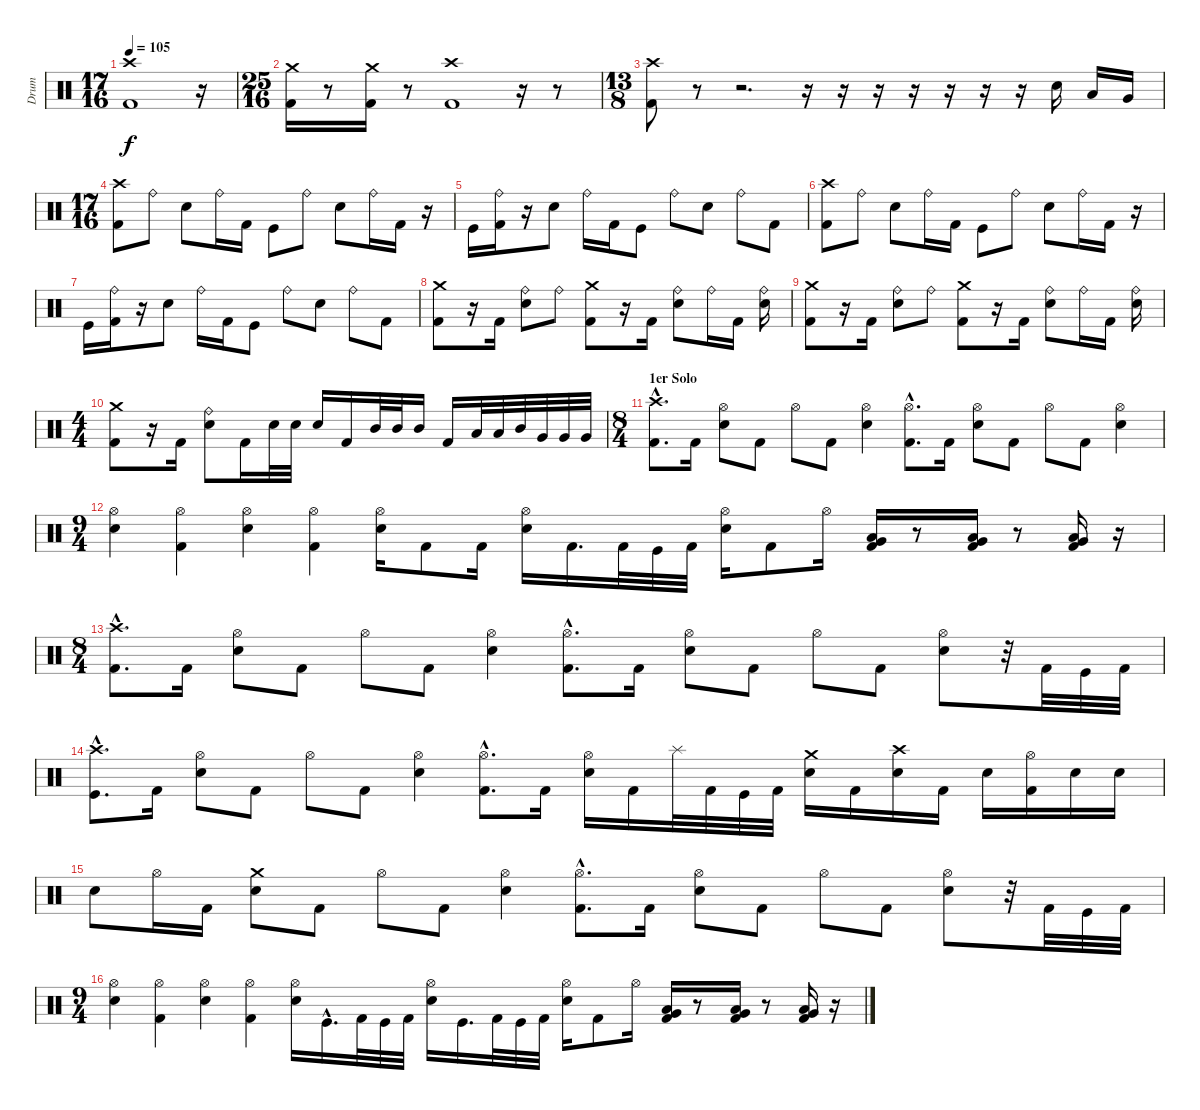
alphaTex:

\track ("Drum" "Drum") {instrument percussion}
\staff {score}
\articulation defaults
\ts (17 16)
\tempo 105
\clef neutral
\ks c
("Crash high (hit)" "Kick (hit) 2").1{dy f} r.16 |
\ts (25 16)
("Crash medium (hit)"{pm} "Kick (hit) 2").16 r.8 ("Crash medium (hit)" "Kick (hit) 2").16 r.8 ("Crash high (hit)" "Kick (hit) 2").1 r.16 r.8 |
\ts (13 8)
("Crash high (hit)" "Kick (hit) 2").8 r.8 r.2{d} r.16 r.16 r.16 r.16 r.16 r.16 r.16 "Snare (hit) 2".16 "Low Tom (hit)".16 "Very Low Tom (hit)".16 |
\ts (17 16)
("Crash high (hit)" "Kick (hit) 2").8 "Ride (bell)".8 "Snare (hit) 2".8 "Ride (bell)".16 "Kick (hit) 2".16 "Kick (hit)".8 "Ride (bell)".8 "Snare (hit) 2".8 "Ride (bell)".16 "Kick (hit) 2".16 r.16 |
"Kick (hit)".16 ("Ride (bell)" "Kick (hit) 2").16 r.16 "Snare (hit) 2".8 "Ride (bell)".16 "Kick (hit) 2".16 "Kick (hit)".8 "Ride (bell)".8 "Snare (hit) 2".8 "Ride (bell)".8 "Kick (hit) 2".8 |
("Crash high (hit)" "Kick (hit) 2").8 "Ride (bell)".8 "Snare (hit) 2".8 "Ride (bell)".16 "Kick (hit) 2".16 "Kick (hit)".8 "Ride (bell)".8 "Snare (hit) 2".8 "Ride (bell)".16 "Kick (hit) 2".16 r.16 |
"Kick (hit)".16 ("Ride (bell)" "Kick (hit) 2").16 r.16 "Snare (hit) 2".8 "Ride (bell)".16 "Kick (hit) 2".16 "Kick (hit)".8 "Ride (bell)".8 "Snare (hit) 2".8 "Ride (bell)".8 "Kick (hit) 2".8 |
("Crash medium (hit)" "Kick (hit) 2").8 r.16 "Kick (hit) 2".16 ("Ride (bell)" "Snare (hit) 2").8 "Ride (bell)".8 ("Crash medium (hit)" "Kick (hit) 2").8 r.16 "Kick (hit) 2".16 ("Ride (bell)" "Snare (hit) 2").8 "Ride (bell)".16 "Kick (hit) 2".16 ("Ride (bell)" "Snare (hit) 2").16 |
("Crash medium (hit)" "Kick (hit) 2").8 r.16 "Kick (hit) 2".16 ("Ride (bell)" "Snare (hit) 2").8 "Ride (bell)".8 ("Crash medium (hit)" "Kick (hit) 2").8 r.16 "Kick (hit) 2".16 ("Ride (bell)" "Snare (hit) 2").8 "Ride (bell)".16 "Kick (hit) 2".16 ("Ride (bell)" "Snare (hit) 2").16 |
\ts (4 4)
("Crash medium (hit)" "Kick (hit) 2").8 r.16 "Kick (hit) 2".16 ("Ride (bell)" "Snare (hit) 2").8 "Kick (hit) 2".16 "Snare (hit) 2".32 "Snare (hit) 2".32 "Snare (hit) 2".16 "Kick (hit) 2".16 "Mid Tom (hit)".32 "Mid Tom (hit)".32 "Mid Tom (hit)".16 "Kick (hit) 2".16 "Low Tom (hit)".32 "Low Tom (hit)".32 "Mid Tom (hit)".32 "Very Low Tom (hit)".32 "Very Low Tom (hit)".32 "Very Low Tom (hit)".32 |
\ts (8 4)
\section ("" "1er Solo")
("Crash high (hit)"{hac} "Kick (hit) 2"{hac}).8{d} "Kick (hit) 2".16 ("Hi-Hat (open)" "Snare (hit) 2").8 "Kick (hit) 2".8 "Hi-Hat (open)".8 "Kick (hit) 2".8 ("Hi-Hat (open)" "Snare (hit) 2").4 ("Hi-Hat (open)"{hac} "Kick (hit) 2").8{d} "Kick (hit) 2".16 ("Hi-Hat (open)" "Snare (hit) 2").8 "Kick (hit) 2".8 "Hi-Hat (open)".8 "Kick (hit) 2".8 ("Hi-Hat (open)" "Snare (hit) 2").4 |
\ts (9 4)
("Hi-Hat (open)" "Snare (hit) 2").4 ("Hi-Hat (open)" "Kick (hit) 2").4 ("Hi-Hat (open)" "Snare (hit) 2").4 ("Hi-Hat (open)" "Kick (hit) 2").4 ("Hi-Hat (open)" "Snare (hit) 2").16 "Kick (hit) 2".8 "Kick (hit) 2".16 ("Hi-Hat (open)" "Snare (hit) 2").16 "Kick (hit) 2".16{d} "Kick (hit) 2".32 "Kick (hit)".32 "Kick (hit) 2".32 ("Hi-Hat (open)" "Snare (hit) 2").16 "Kick (hit) 2".8 "Hi-Hat (open)".16 ("Very Low Tom (hit)" "Low Tom (hit)" "Kick (hit) 2").16 r.8 ("Very Low Tom (hit)" "Low Tom (hit)" "Kick (hit) 2").16 r.8 ("Very Low Tom (hit)" "Low Tom (hit)" "Kick (hit) 2").16 r.16 |
\ts (8 4)
("Crash high (hit)"{hac} "Kick (hit) 2").8{d} "Kick (hit) 2".16 ("Hi-Hat (open)" "Snare (hit) 2").8 "Kick (hit) 2".8 "Hi-Hat (open)".8 "Kick (hit) 2".8 ("Hi-Hat (open)" "Snare (hit) 2").4 ("Hi-Hat (open)"{hac} "Kick (hit) 2").8{d} "Kick (hit) 2".16 ("Hi-Hat (open)" "Snare (hit) 2").8 "Kick (hit) 2".8 "Hi-Hat (open)".8 "Kick (hit) 2".8 ("Hi-Hat (open)" "Snare (hit) 2").8 r.32 "Kick (hit) 2".32 "Kick (hit)".32 "Kick (hit) 2".32 |
("Crash high (hit)"{hac} "Kick (hit)").8{d} "Kick (hit) 2".16 ("Hi-Hat (open)" "Snare (hit) 2").8 "Kick (hit) 2".8 "Hi-Hat (open)".8 "Kick (hit) 2".8 ("Hi-Hat (open)" "Snare (hit) 2").4 ("Hi-Hat (open)"{hac} "Kick (hit) 2").8{d} "Kick (hit) 2".16 ("Hi-Hat (open)" "Snare (hit) 2").16 "Kick (hit) 2".16 "Splash (hit)".32 "Kick (hit) 2".32 "Kick (hit)".32 "Kick (hit) 2".32 ("Crash medium (hit)" "Snare (hit) 2").16 "Kick (hit) 2".16 ("Crash high (hit)" "Snare (hit) 2").16 "Kick (hit) 2".16 "Snare (hit) 2".16 ("Hi-Hat (open)" "Kick (hit) 2").16 "Snare (hit) 2".16 "Snare (hit) 2".16 |
"Snare (hit) 2".8 "Hi-Hat (open)".16 "Kick (hit) 2".16 ("Crash medium (hit)" "Snare (hit) 2").8 "Kick (hit) 2".8 "Hi-Hat (open)".8 "Kick (hit) 2".8 ("Hi-Hat (open)" "Snare (hit) 2").4 ("Hi-Hat (open)"{hac} "Kick (hit) 2").8{d} "Kick (hit) 2".16 ("Hi-Hat (open)" "Snare (hit) 2").8 "Kick (hit) 2".8 "Hi-Hat (open)".8 "Kick (hit) 2".8 ("Hi-Hat (open)" "Snare (hit) 2").8 r.32 "Kick (hit) 2".32 "Kick (hit)".32 "Kick (hit) 2".32 |
\ts (9 4)
("Hi-Hat (open)" "Snare (hit) 2").4 ("Hi-Hat (open)" "Kick (hit) 2").4 ("Hi-Hat (open)" "Snare (hit) 2").4 ("Hi-Hat (open)" "Kick (hit) 2").4 ("Hi-Hat (open)" "Snare (hit) 2").16 "Kick (hit)"{hac}.16{d} "Kick (hit) 2".32 "Kick (hit)".32 "Kick (hit) 2".32 ("Hi-Hat (open)" "Snare (hit) 2").16 "Kick (hit)".16{d} "Kick (hit) 2".32 "Kick (hit)".32 "Kick (hit) 2".32 ("Hi-Hat (open)" "Snare (hit) 2").16 "Kick (hit) 2".8 "Hi-Hat (open)".16 ("Low Tom (hit)" "Very Low Tom (hit)" "Kick (hit) 2").16 r.8 ("Low Tom (hit)" "Very Low Tom (hit)" "Kick (hit) 2").16 r.8 ("Low Tom (hit)" "Very Low Tom (hit)" "Kick (hit) 2").16 r.16
